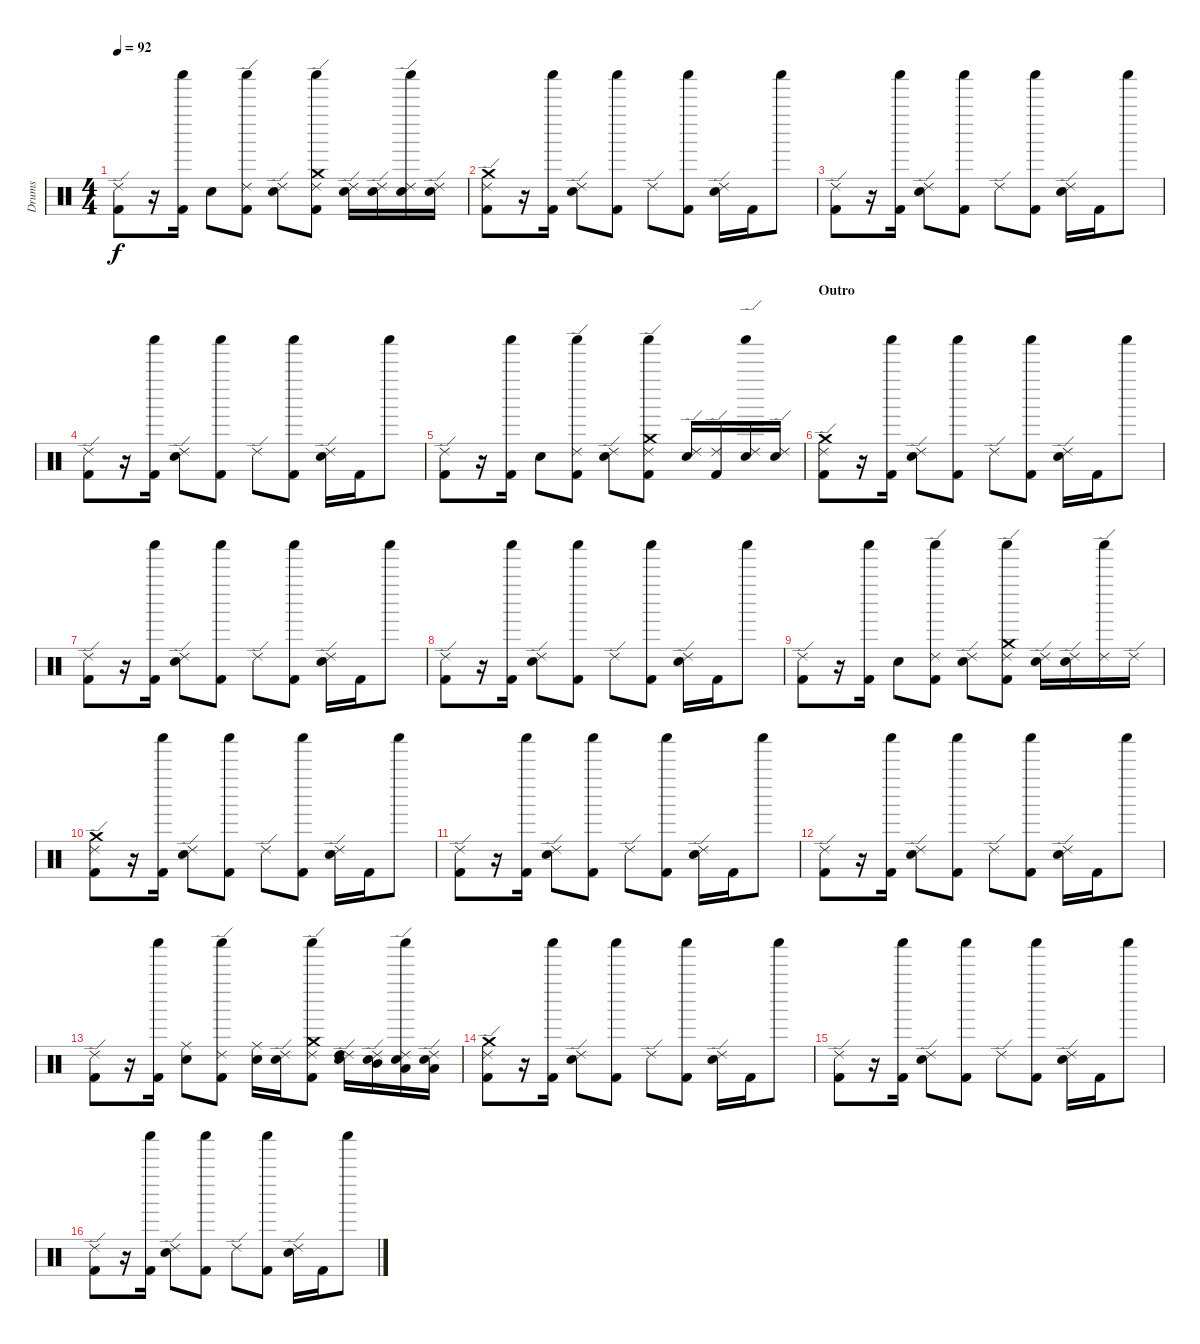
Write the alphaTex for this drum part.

\track ("Drums" "Drums") {instrument percussion}
\staff {score}
\articulation defaults
\ts (4 4)
\tempo 92
\clef neutral
\ks c
("Ride (edge) 2" "Kick (hit) 2").8{dy f} r.16 ("Shaker (hit)" "Kick (hit) 2").16 "Electric Snare (hit)".8 ("Ride (edge) 2" "Shaker (hit)" "Kick (hit) 2").8 ("Ride (edge) 2" "Electric Snare (hit)").8 ("Ride (edge) 2" "Crash medium (hit)" "Shaker (hit)" "Kick (hit) 2").8 ("Ride (edge) 2" "Electric Snare (hit)").16 ("Ride (edge) 2" "Electric Snare (hit)").16 ("Ride (edge) 2" "Shaker (hit)" "Electric Snare (hit)").16 ("Ride (edge) 2" "Electric Snare (hit)").16 |
("Ride (edge) 2" "Crash medium (hit)" "Kick (hit) 2").8 r.16 ("Shaker (hit)" "Kick (hit) 2").16 ("Ride (edge) 2" "Electric Snare (hit)").8 ("Shaker (hit)" "Kick (hit) 2").8 "Ride (edge) 2".8 ("Shaker (hit)" "Kick (hit) 2").8 ("Ride (edge) 2" "Electric Snare (hit)").16 "Kick (hit) 2".16 "Shaker (hit)".8 |
("Ride (edge) 2" "Kick (hit) 2").8 r.16 ("Shaker (hit)" "Kick (hit) 2").16 ("Ride (edge) 2" "Electric Snare (hit)").8 ("Shaker (hit)" "Kick (hit) 2").8 "Ride (edge) 2".8 ("Shaker (hit)" "Kick (hit) 2").8 ("Ride (edge) 2" "Electric Snare (hit)").16 "Kick (hit) 2".16 "Shaker (hit)".8 |
("Ride (edge) 2" "Kick (hit) 2").8 r.16 ("Shaker (hit)" "Kick (hit) 2").16 ("Ride (edge) 2" "Electric Snare (hit)").8 ("Shaker (hit)" "Kick (hit) 2").8 "Ride (edge) 2".8 ("Shaker (hit)" "Kick (hit) 2").8 ("Ride (edge) 2" "Electric Snare (hit)").16 "Kick (hit) 2".16 "Shaker (hit)".8 |
("Ride (edge) 2" "Kick (hit) 2").8 r.16 ("Shaker (hit)" "Kick (hit) 2").16 "Electric Snare (hit)".8 ("Ride (edge) 2" "Shaker (hit)" "Kick (hit) 2").8 ("Ride (edge) 2" "Electric Snare (hit)").8 ("Ride (edge) 2" "Crash medium (hit)" "Shaker (hit)" "Kick (hit) 2").8 ("Ride (edge) 2" "Electric Snare (hit)").16 ("Ride (edge) 2" "Kick (hit) 2").16 ("Ride (edge) 2" "Shaker (hit)" "Electric Snare (hit)").16 ("Ride (edge) 2" "Electric Snare (hit)").16 |
\section ("" "Outro")
("Ride (edge) 2" "Crash medium (hit)" "Kick (hit) 2").8 r.16 ("Shaker (hit)" "Kick (hit) 2").16 ("Ride (edge) 2" "Electric Snare (hit)").8 ("Shaker (hit)" "Kick (hit) 2").8 "Ride (edge) 2".8 ("Shaker (hit)" "Kick (hit) 2").8 ("Ride (edge) 2" "Electric Snare (hit)").16 "Kick (hit) 2".16 "Shaker (hit)".8 |
("Ride (edge) 2" "Kick (hit) 2").8 r.16 ("Shaker (hit)" "Kick (hit) 2").16 ("Ride (edge) 2" "Electric Snare (hit)").8 ("Shaker (hit)" "Kick (hit) 2").8 "Ride (edge) 2".8 ("Shaker (hit)" "Kick (hit) 2").8 ("Ride (edge) 2" "Electric Snare (hit)").16 "Kick (hit) 2".16 "Shaker (hit)".8 |
("Ride (edge) 2" "Kick (hit) 2").8 r.16 ("Shaker (hit)" "Kick (hit) 2").16 ("Ride (edge) 2" "Electric Snare (hit)").8 ("Shaker (hit)" "Kick (hit) 2").8 "Ride (edge) 2".8 ("Shaker (hit)" "Kick (hit) 2").8 ("Ride (edge) 2" "Electric Snare (hit)").16 "Kick (hit) 2".16 "Shaker (hit)".8 |
("Ride (edge) 2" "Kick (hit) 2").8 r.16 ("Shaker (hit)" "Kick (hit) 2").16 "Electric Snare (hit)".8 ("Ride (edge) 2" "Shaker (hit)" "Kick (hit) 2").8 ("Ride (edge) 2" "Electric Snare (hit)").8 ("Ride (edge) 2" "Crash medium (hit)" "Shaker (hit)" "Kick (hit) 2").8 ("Ride (edge) 2" "Electric Snare (hit)").16 ("Ride (edge) 2" "Electric Snare (hit)").16 ("Ride (edge) 2" "Shaker (hit)").16 "Ride (edge) 2".16 |
("Ride (edge) 2" "Crash medium (hit)" "Kick (hit) 2").8 r.16 ("Shaker (hit)" "Kick (hit) 2").16 ("Ride (edge) 2" "Electric Snare (hit)").8 ("Shaker (hit)" "Kick (hit) 2").8 "Ride (edge) 2".8 ("Shaker (hit)" "Kick (hit) 2").8 ("Ride (edge) 2" "Electric Snare (hit)").16 "Kick (hit) 2".16 "Shaker (hit)".8 |
("Ride (edge) 2" "Kick (hit) 2").8 r.16 ("Shaker (hit)" "Kick (hit) 2").16 ("Ride (edge) 2" "Electric Snare (hit)").8 ("Shaker (hit)" "Kick (hit) 2").8 "Ride (edge) 2".8 ("Shaker (hit)" "Kick (hit) 2").8 ("Ride (edge) 2" "Electric Snare (hit)").16 "Kick (hit) 2".16 "Shaker (hit)".8 |
("Ride (edge) 2" "Kick (hit) 2").8 r.16 ("Shaker (hit)" "Kick (hit) 2").16 ("Ride (edge) 2" "Electric Snare (hit)").8 ("Shaker (hit)" "Kick (hit) 2").8 "Ride (edge) 2".8 ("Shaker (hit)" "Kick (hit) 2").8 ("Ride (edge) 2" "Electric Snare (hit)").16 "Kick (hit) 2".16 "Shaker (hit)".8 |
("Ride (edge) 2" "Kick (hit) 2").8 r.16 ("Shaker (hit)" "Kick (hit) 2").16 ("Ride (middle)" "Electric Snare (hit)").8 ("Ride (edge) 2" "Shaker (hit)" "Kick (hit) 2").8 ("Ride (middle)" "Electric Snare (hit)").16 ("Ride (edge) 2" "Electric Snare (hit)").16 ("Ride (edge) 2" "Crash medium (hit)" "Shaker (hit)" "Kick (hit) 2").8 ("Ride (edge) 2" "High Tom (hit)" "Electric Snare (hit)").16 ("Ride (edge) 2" "Mid Tom (hit)" "Electric Snare (hit)").16 ("Ride (edge) 2" "Shaker (hit)" "Low Tom (hit)" "Electric Snare (hit)").16 ("Ride (edge) 2" "Low Tom (hit)" "Electric Snare (hit)").16 |
("Ride (edge) 2" "Crash medium (hit)" "Kick (hit) 2").8 r.16 ("Shaker (hit)" "Kick (hit) 2").16 ("Ride (edge) 2" "Electric Snare (hit)").8 ("Shaker (hit)" "Kick (hit) 2").8 "Ride (edge) 2".8 ("Shaker (hit)" "Kick (hit) 2").8 ("Ride (edge) 2" "Electric Snare (hit)").16 "Kick (hit) 2".16 "Shaker (hit)".8 |
("Ride (edge) 2" "Kick (hit) 2").8 r.16 ("Shaker (hit)" "Kick (hit) 2").16 ("Ride (edge) 2" "Electric Snare (hit)").8 ("Shaker (hit)" "Kick (hit) 2").8 "Ride (edge) 2".8 ("Shaker (hit)" "Kick (hit) 2").8 ("Ride (edge) 2" "Electric Snare (hit)").16 "Kick (hit) 2".16 "Shaker (hit)".8 |
("Ride (edge) 2" "Kick (hit) 2").8 r.16 ("Shaker (hit)" "Kick (hit) 2").16 ("Ride (edge) 2" "Electric Snare (hit)").8 ("Shaker (hit)" "Kick (hit) 2").8 "Ride (edge) 2".8 ("Shaker (hit)" "Kick (hit) 2").8 ("Ride (edge) 2" "Electric Snare (hit)").16 "Kick (hit) 2".16 "Shaker (hit)".8
